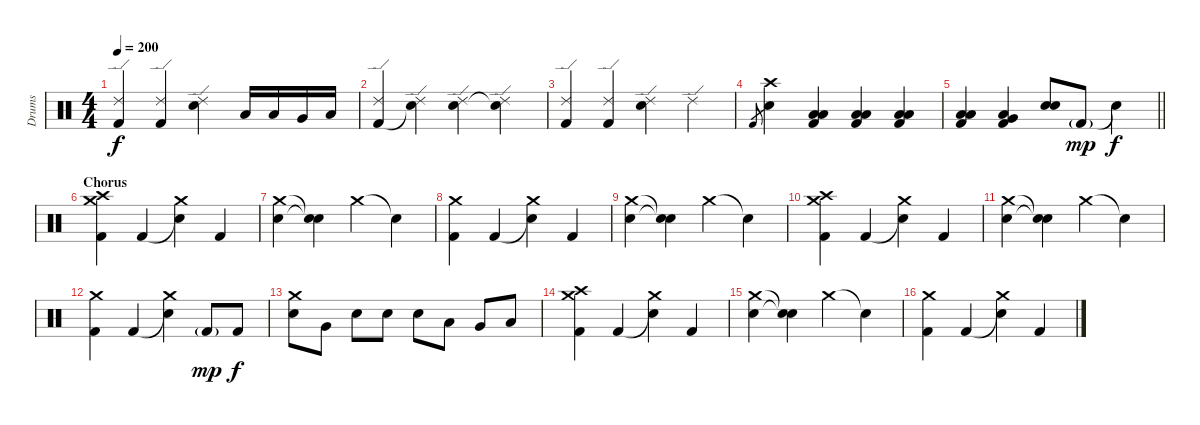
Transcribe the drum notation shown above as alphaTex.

\track ("Drums" "Drums") {instrument percussion}
\staff {score}
\articulation defaults
\ts (4 4)
\tempo 200
\clef neutral
\ks c
("Kick (hit) 2" "Ride (edge) 2").4{dy f} ("Kick (hit) 2" "Ride (edge) 2").4 ("Electric Snare (hit)" "Ride (edge) 2").4 "Low Tom (hit)".16 "Low Tom (hit)".16 "Very Low Tom (hit)".16 "Low Floor Tom (hit)".16 |
("Kick (hit) 2" "Ride (edge) 2").4 ("Snare (hit)"{t} "Ride (edge) 2").4 ("Electric Snare (hit)" "Ride (edge) 2").4 ("Snare (hit)"{t} "Ride (edge) 2").4 |
("Kick (hit) 2" "Ride (edge) 2").4 ("Kick (hit) 2" "Ride (edge) 2").4 ("Electric Snare (hit)" "Ride (edge) 2").4 "Ride (edge) 2".4 |
"Kick (hit) 2".8{gr} ("Electric Snare (hit)" "Crash high (hit)").4 ("Kick (hit) 2" "Low Tom (hit)" "Low Floor Tom (hit)").4 ("Kick (hit) 2" "Low Tom (hit)" "Low Floor Tom (hit)").4 ("Kick (hit) 2" "Low Tom (hit)" "Low Floor Tom (hit)").4 |
\barLineRight lightlight
("Kick (hit) 2" "Low Tom (hit)" "Low Floor Tom (hit)").4 ("Kick (hit) 2" "Low Tom (hit)" "Very Low Tom (hit)").4 ("Electric Snare (hit)" "Electric Snare (hit)").8 "Kick (hit) 2"{g}.8{dy mp} "Snare (hit)"{t}.4{dy f} |
\section ("" "Chorus")
("Kick (hit) 2" "Crash medium (hit)" "Crash high (hit)").4 "Kick (hit) 2".4 ("Snare (hit)"{t} "Crash medium (hit)").4 "Kick (hit) 2".4 |
("Electric Snare (hit)" "Crash medium (hit)").4 ("Electric Snare (hit)"{t} "Snare (hit)"{t}).4 "Crash medium (hit)".4 "Snare (hit)"{t}.4 |
("Kick (hit) 2" "Crash medium (hit)").4 "Kick (hit) 2".4 ("Snare (hit)"{t} "Crash medium (hit)").4 "Kick (hit) 2".4 |
("Electric Snare (hit)" "Crash medium (hit)").4 ("Electric Snare (hit)"{t} "Snare (hit)"{t}).4 "Crash medium (hit)".4 "Snare (hit)"{t}.4 |
("Kick (hit) 2" "Crash medium (hit)" "Crash high (hit)").4 "Kick (hit) 2".4 ("Snare (hit)"{t} "Crash medium (hit)").4 "Kick (hit) 2".4 |
("Electric Snare (hit)" "Crash medium (hit)").4 ("Electric Snare (hit)"{t} "Snare (hit)"{t}).4 "Crash medium (hit)".4 "Snare (hit)"{t}.4 |
("Kick (hit) 2" "Crash medium (hit)").4 "Kick (hit) 2".4 ("Snare (hit)"{t} "Crash medium (hit)").4 "Kick (hit) 2"{g}.8{dy mp} "Kick (hit) 2".8{dy f} |
("Electric Snare (hit)" "Crash medium (hit)").8 "Very Low Tom (hit)".8 "Electric Snare (hit)".8 "Electric Snare (hit)".8 "Electric Snare (hit)".8 "Low Tom (hit)".8 "Very Low Tom (hit)".8 "Low Floor Tom (hit)".8 |
("Kick (hit) 2" "Crash medium (hit)" "Crash high (hit)").4 "Kick (hit) 2".4 ("Snare (hit)"{t} "Crash medium (hit)").4 "Kick (hit) 2".4 |
("Electric Snare (hit)" "Crash medium (hit)").4 ("Electric Snare (hit)"{t} "Snare (hit)"{t}).4 "Crash medium (hit)".4 "Snare (hit)"{t}.4 |
("Kick (hit) 2" "Crash medium (hit)").4 "Kick (hit) 2".4 ("Snare (hit)"{t} "Crash medium (hit)").4 "Kick (hit) 2".4
